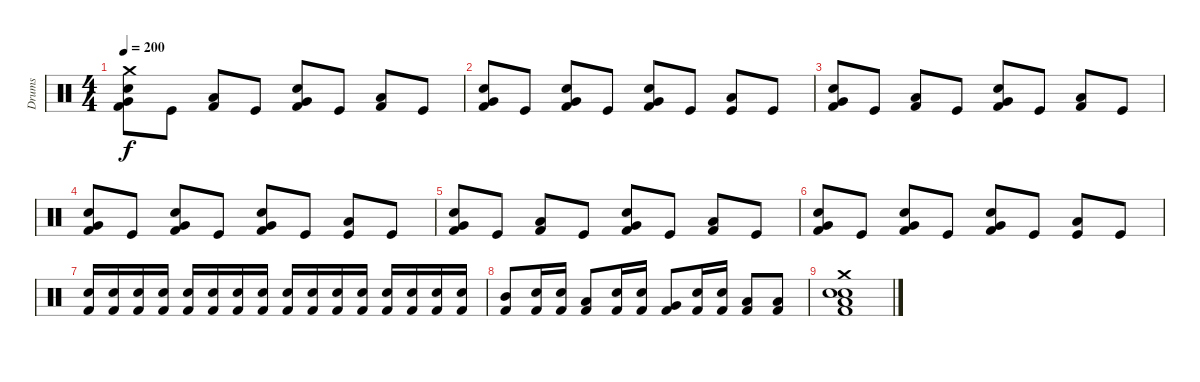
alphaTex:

\track ("Drums" "Drums") {instrument percussion}
\staff {score}
\articulation defaults
\ts (4 4)
\section ("" "")
\tempo 200
\clef neutral
\ks c
("Crash medium (hit)" "Snare (hit) 2" "Very Low Tom (hit)" "Kick (hit) 2").8{dy f} "Kick (hit)".8 ("Low Floor Tom (hit)" "Kick (hit) 2").8 "Kick (hit)".8 ("Snare (hit) 2" "Very Low Tom (hit)" "Kick (hit) 2").8 "Kick (hit)".8 ("Low Floor Tom (hit)" "Kick (hit) 2").8 "Kick (hit)".8 |
("Snare (hit) 2" "Very Low Tom (hit)" "Kick (hit) 2").8 "Kick (hit)".8 ("Snare (hit) 2" "Very Low Tom (hit)" "Kick (hit) 2").8 "Kick (hit)".8 ("Snare (hit) 2" "Very Low Tom (hit)" "Kick (hit) 2").8 "Kick (hit)".8 ("Low Floor Tom (hit)" "Kick (hit)").8 "Kick (hit)".8 |
("Snare (hit) 2" "Very Low Tom (hit)" "Kick (hit) 2").8 "Kick (hit)".8 ("Low Floor Tom (hit)" "Kick (hit) 2").8 "Kick (hit)".8 ("Snare (hit) 2" "Very Low Tom (hit)" "Kick (hit) 2").8 "Kick (hit)".8 ("Low Floor Tom (hit)" "Kick (hit) 2").8 "Kick (hit)".8 |
("Snare (hit) 2" "Very Low Tom (hit)" "Kick (hit) 2").8 "Kick (hit)".8 ("Snare (hit) 2" "Very Low Tom (hit)" "Kick (hit) 2").8 "Kick (hit)".8 ("Snare (hit) 2" "Very Low Tom (hit)" "Kick (hit) 2").8 "Kick (hit)".8 ("Low Floor Tom (hit)" "Kick (hit)").8 "Kick (hit)".8 |
("Snare (hit) 2" "Very Low Tom (hit)" "Kick (hit) 2").8 "Kick (hit)".8 ("Low Floor Tom (hit)" "Kick (hit) 2").8 "Kick (hit)".8 ("Snare (hit) 2" "Very Low Tom (hit)" "Kick (hit) 2").8 "Kick (hit)".8 ("Low Floor Tom (hit)" "Kick (hit) 2").8 "Kick (hit)".8 |
("Snare (hit) 2" "Very Low Tom (hit)" "Kick (hit) 2").8 "Kick (hit)".8 ("Snare (hit) 2" "Very Low Tom (hit)" "Kick (hit) 2").8 "Kick (hit)".8 ("Snare (hit) 2" "Very Low Tom (hit)" "Kick (hit) 2").8 "Kick (hit)".8 ("Low Floor Tom (hit)" "Kick (hit)").8 "Kick (hit)".8 |
("Snare (hit) 2" "Kick (hit) 2").16 ("Snare (hit) 2" "Kick (hit) 2").16 ("Snare (hit) 2" "Kick (hit) 2").16 ("Snare (hit) 2" "Kick (hit) 2").16 ("Snare (hit) 2" "Kick (hit) 2").16 ("Snare (hit) 2" "Kick (hit) 2").16 ("Snare (hit) 2" "Kick (hit) 2").16 ("Snare (hit) 2" "Kick (hit) 2").16 ("Electric Snare (hit)" "Kick (hit) 2").16 ("Electric Snare (hit)" "Kick (hit) 2").16 ("Electric Snare (hit)" "Kick (hit) 2").16 ("Electric Snare (hit)" "Kick (hit) 2").16 ("Electric Snare (hit)" "Kick (hit) 2").16 ("Electric Snare (hit)" "Kick (hit) 2").16 ("Electric Snare (hit)" "Kick (hit) 2").16 ("Electric Snare (hit)" "Kick (hit) 2").16 |
("Mid Tom (hit)" "Kick (hit) 2").8 ("Electric Snare (hit)" "Kick (hit) 2").16 ("Electric Snare (hit)" "Kick (hit) 2").16 ("Low Tom (hit)" "Kick (hit) 2").8 ("Snare (hit) 2" "Kick (hit) 2").16 ("Snare (hit) 2" "Kick (hit) 2").16 ("Very Low Tom (hit)" "Kick (hit) 2").8 ("Electric Snare (hit)" "Kick (hit) 2").16 ("Electric Snare (hit)" "Kick (hit) 2").16 ("Low Floor Tom (hit)" "Kick (hit) 2").8 ("Low Floor Tom (hit)" "Kick (hit) 2").8 |
("Crash medium (hit)" "Low Floor Tom (hit)" "Snare (hit) 2" "Electric Snare (hit)" "Kick (hit) 2").1
